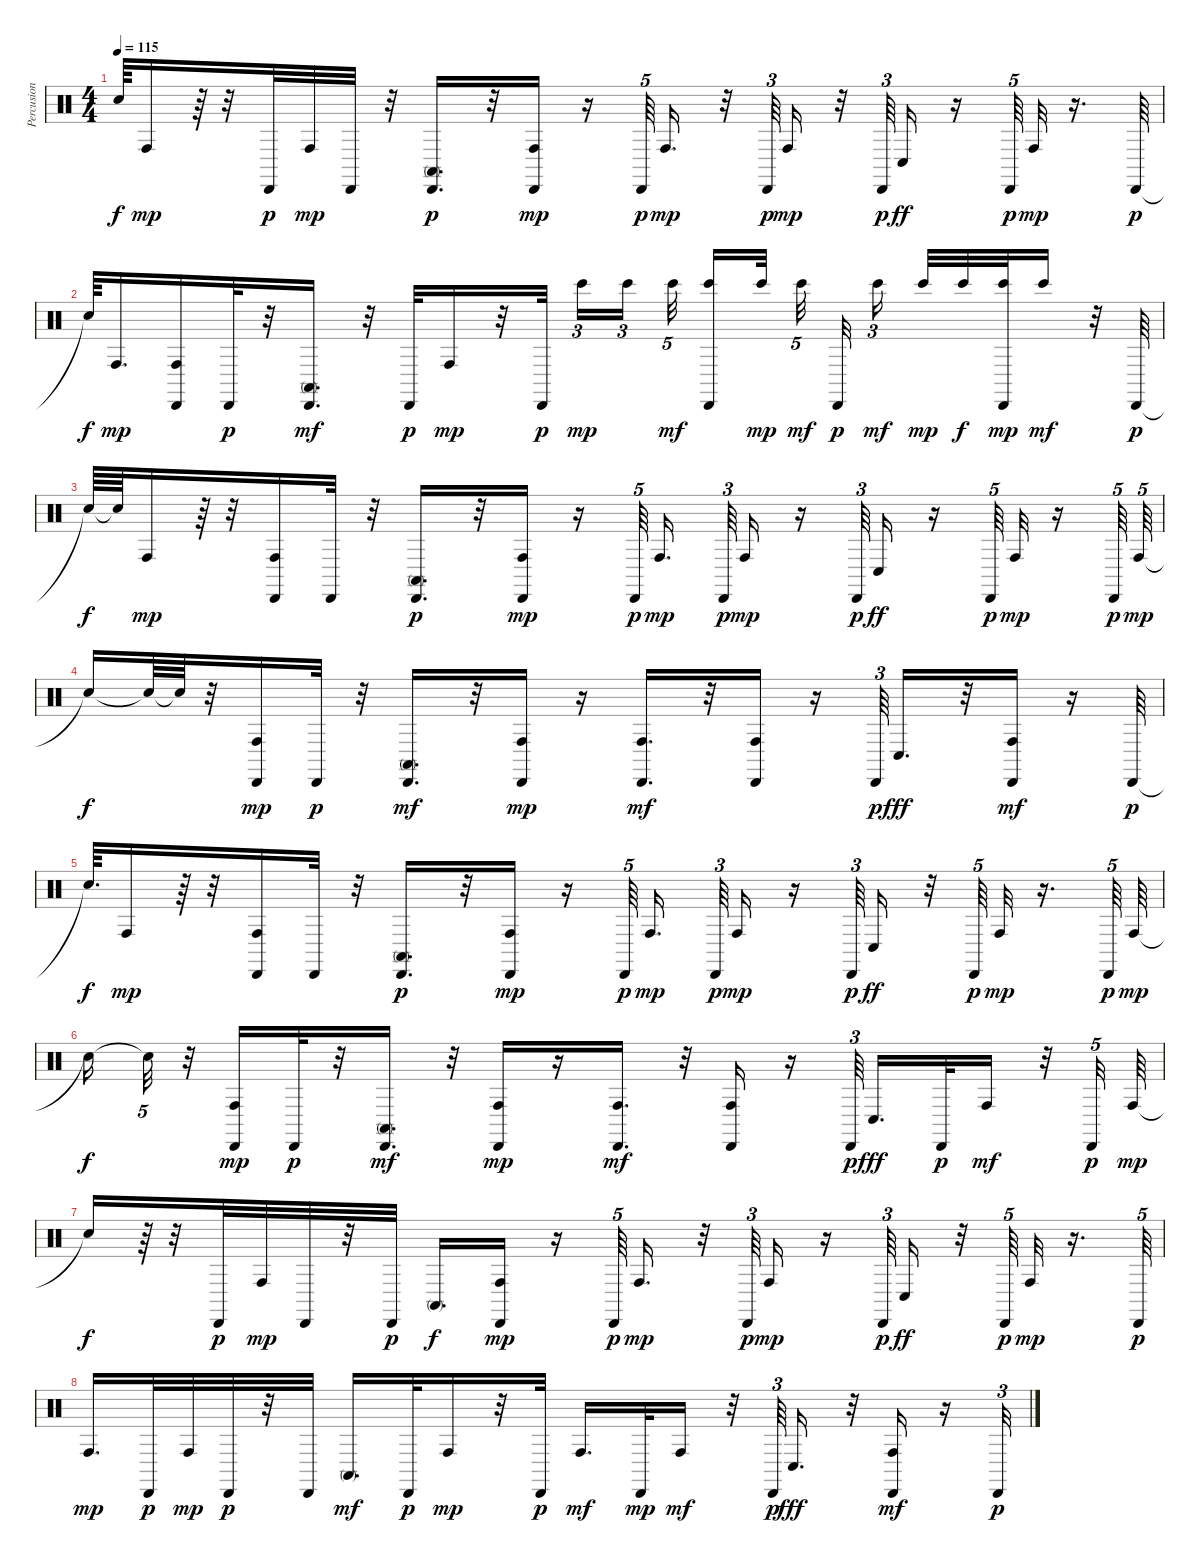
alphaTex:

\track ("Percusion" "Percusion") {instrument percussion}
\staff {score}
\articulation defaults
\ts (4 4)
\tempo 115
\clef neutral
\ks c "Snare (hit)"{t}.64{dy f} "Conga high (hit)".16{dy mp}
r.64 r.32 "Cabasa (hit)".32{dy p} "Conga high (hit)".32{dy mp} "Cabasa (hit)".32 r.32 ("Cabasa (hit)" "Conga high (mute)").16{d dy p} r.32 ("Cabasa (hit)" "Conga high (hit)").16{dy mp} r.16 "Cabasa (hit)".64{tu (5 4) dy p} "Conga high (hit)".16{d dy mp} r.32 "Cabasa (hit)".64{tu (3 2) dy p} "Conga high (hit)".16{dy mp} r.32 "Cabasa (hit)".64{tu (3 2) dy p} "Conga low (hit)".16{dy ff} r.16 "Cabasa (hit)".64{tu (5 4) dy p} "Conga high (hit)".32{dy mp} r.16{d} "Cabasa (hit)".64{dy p} |
"Snare (hit)"{t}.64{dy f} "Conga high (hit)".16{d dy mp} ("Cabasa (hit)" "Conga high (hit)").16 "Cabasa (hit)".32{dy p} r.32 ("Cabasa (hit)" "Conga high (mute)").16{d dy mf} r.32 "Cabasa (hit)".32{dy p} "Conga high (hit)".16{dy mp} r.32 "Cabasa (hit)".32{dy p} "Bongo High (hit)".16{tu (3 2) dy mp} "Bongo High (hit)".16{tu (3 2)} "Bongo High (hit)".32{tu (5 4) dy mf beam splitsecondary} ("Cabasa (hit)" "Bongo High (hit)").16 "Bongo High (hit)".32{dy mp beam splitsecondary} "Bongo High (hit)".32{tu (5 4) dy mf} "Cabasa (hit)".32{dy p} "Bongo High (hit)".16{tu (3 2) dy mf beam splitsecondary} "Bongo High (hit)".32{dy mp} "Bongo High (hit)".32{dy f} ("Cabasa (hit)" "Bongo High (hit)").32{dy mp} "Bongo High (hit)".16{dy mf} r.32 "Cabasa (hit)".64{dy p} |
"Snare (hit)"{t}.64{dy f} "Snare (hit)"{t}.64 "Conga high (hit)".16{dy mp} r.64 r.32 ("Cabasa (hit)" "Conga high (hit)").16 "Cabasa (hit)".32 r.32 ("Cabasa (hit)" "Conga high (mute)").16{d dy p} r.32 ("Cabasa (hit)" "Conga high (hit)").16{dy mp} r.16 "Cabasa (hit)".64{tu (5 4) dy p beam splitsecondary} "Conga high (hit)".16{d dy mp beam splitsecondary} "Cabasa (hit)".64{tu (3 2) dy p} "Conga high (hit)".16{dy mp} r.16 "Cabasa (hit)".64{tu (3 2) dy p} "Conga low (hit)".16{dy ff} r.16 "Cabasa (hit)".64{tu (5 4) dy p} "Conga high (hit)".32{dy mp} r.16 "Cabasa (hit)".64{tu (5 4) dy p} "Conga high (hit)".64{tu (5 4) dy mp} |
"Snare (hit)"{t}.16{dy f} "Snare (hit)"{t}.64 "Snare (hit)"{t}.64 r.32 ("Cabasa (hit)" "Conga high (hit)").16{dy mp} "Cabasa (hit)".32{dy p} r.32 ("Cabasa (hit)" "Conga high (mute)").16{d dy mf} r.32 ("Cabasa (hit)" "Conga high (hit)").16{dy mp} r.16 ("Cabasa (hit)" "Conga high (hit)").16{d dy mf} r.32 ("Cabasa (hit)" "Conga high (hit)").16 r.16 "Cabasa (hit)".64{tu (3 2) dy p} "Conga low (hit)".16{d dy fff} r.32 ("Cabasa (hit)" "Conga high (hit)").16{dy mf} r.16 "Cabasa (hit)".64{dy p} |
"Snare (hit)"{t}.64{d dy f} "Conga high (hit)".16{dy mp} r.64 r.32 ("Cabasa (hit)" "Conga high (hit)").16 "Cabasa (hit)".32 r.32 ("Cabasa (hit)" "Conga high (mute)").16{d dy p} r.32 ("Cabasa (hit)" "Conga high (hit)").16{dy mp} r.16 "Cabasa (hit)".64{tu (5 4) dy p beam splitsecondary} "Conga high (hit)".16{d dy mp beam splitsecondary} "Cabasa (hit)".64{tu (3 2) dy p} "Conga high (hit)".16{dy mp} r.16 "Cabasa (hit)".64{tu (3 2) dy p} "Conga low (hit)".16{dy ff} r.32 "Cabasa (hit)".64{tu (5 4) dy p} "Conga high (hit)".32{dy mp} r.16{d} "Cabasa (hit)".64{tu (5 4) dy p} "Conga high (hit)".64{dy mp} |
"Snare (hit)"{t}.16{dy f} "Snare (hit)"{t}.32{tu (5 4)} r.32 ("Cabasa (hit)" "Conga high (hit)").16{dy mp} "Cabasa (hit)".32{dy p} r.32 ("Cabasa (hit)" "Conga high (mute)").16{d dy mf} r.32 ("Cabasa (hit)" "Conga high (hit)").16{dy mp} r.16 ("Cabasa (hit)" "Conga high (hit)").16{d dy mf} r.32 ("Cabasa (hit)" "Conga high (hit)").16 r.16 "Cabasa (hit)".64{tu (3 2) dy p} "Conga low (hit)".16{d dy fff} "Cabasa (hit)".32{dy p} "Conga high (hit)".16{dy mf} r.32 "Cabasa (hit)".32{tu (5 4) dy p} "Conga high (hit)".64{dy mp} |
"Snare (hit)"{t}.16{dy f} r.64 r.32 "Cabasa (hit)".32{dy p} "Conga high (hit)".32{dy mp} "Cabasa (hit)".32 r.32 "Cabasa (hit)".32{dy p} "Conga high (mute)".16{d dy f} ("Cabasa (hit)" "Conga high (hit)").16{dy mp} r.16 "Cabasa (hit)".64{tu (5 4) dy p} "Conga high (hit)".16{d dy mp} r.32 "Cabasa (hit)".64{tu (3 2) dy p} "Conga high (hit)".16{dy mp} r.16 "Cabasa (hit)".64{tu (3 2) dy p} "Conga low (hit)".16{dy ff} r.32 "Cabasa (hit)".64{tu (5 4) dy p} "Conga high (hit)".32{dy mp} r.16{d} "Cabasa (hit)".64{tu (5 4) dy p} |
"Conga high (hit)".16{d dy mp} "Cabasa (hit)".32{dy p} "Conga high (hit)".32{dy mp} "Cabasa (hit)".32{dy p} r.32 "Cabasa (hit)".32 "Conga high (mute)".16{d dy mf} "Cabasa (hit)".32{dy p} "Conga high (hit)".16{dy mp} r.32 "Cabasa (hit)".32{dy p} "Conga high (hit)".16{d dy mf} "Cabasa (hit)".32{dy mp} "Conga high (hit)".16{dy mf} r.32 "Cabasa (hit)".64{tu (3 2) dy p} "Conga low (hit)".16{d dy fff} r.32 ("Cabasa (hit)" "Conga high (hit)").16{dy mf} r.16 "Cabasa (hit)".32{tu (3 2) dy p}
